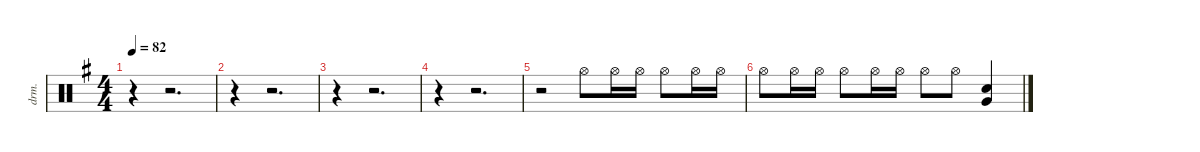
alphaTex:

\defaultSystemsLayout 4
\hideDynamics
\bracketExtendMode nobrackets
\track ("Drums" "drm.") {instrument percussion}
\staff {score}
\articulation defaults
\ts (4 4)
\tempo 82
\clef neutral
\ks eminor
r.4{dy f} r.2{d} |
r.4 r.2{d} |
r.4 r.2{d} |
r.4 r.2{d} |
r.2 "Hi-Hat (open)"{acc forcenatural}.8 "Hi-Hat (open)"{acc forcenatural}.16 "Hi-Hat (open)"{acc forcenatural}.16 "Hi-Hat (open)"{acc forcenatural}.8 "Hi-Hat (open)"{acc forcenatural}.16 "Hi-Hat (open)"{acc forcenatural}.16 |
"Hi-Hat (open)"{acc forcenatural}.8 "Hi-Hat (open)"{acc forcenatural}.16 "Hi-Hat (open)"{acc forcenatural}.16 "Hi-Hat (open)"{acc forcenatural}.8 "Hi-Hat (open)"{acc forcenatural}.16 "Hi-Hat (open)"{acc forcenatural}.16 "Hi-Hat (open)"{acc forcenatural}.8 "Hi-Hat (open)"{acc forcenatural}.8 ("Snare (hit) 2"{acc forcenatural} "Very Low Tom (hit)"{acc forcenatural}).4
